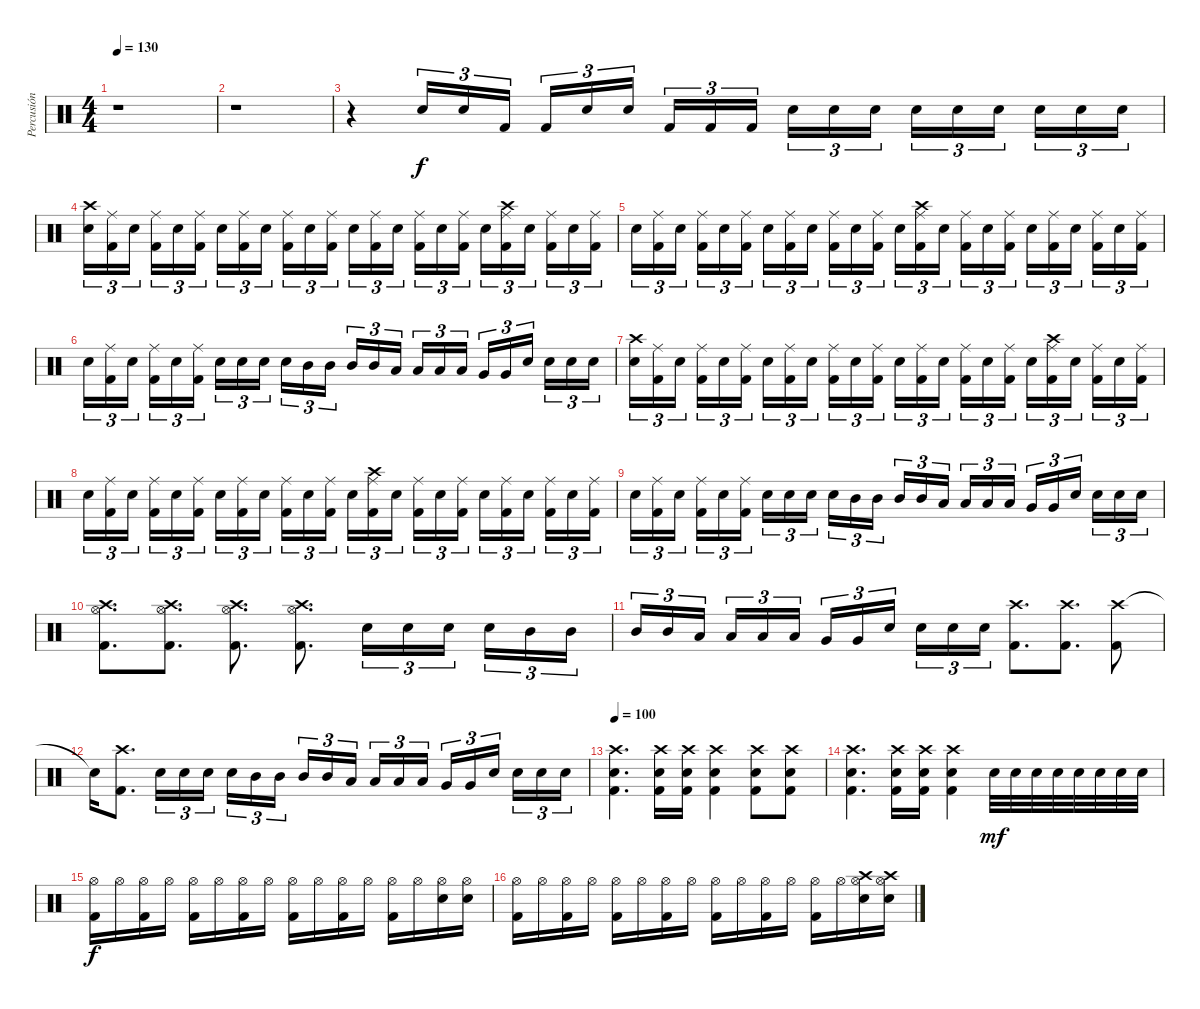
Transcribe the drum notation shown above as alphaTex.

\track ("Percusión" "Percusión") {instrument percussion}
\staff {score}
\articulation defaults
\ts (4 4)
\tempo 130
\clef neutral
\ks c
r.1{dy f} |
r.1 |
r.4 "Electric Snare (hit)".16{tu (3 2)} "Electric Snare (hit)".16{tu (3 2)} "Kick (hit) 2".16{tu (3 2)} "Kick (hit) 2".16{tu (3 2)} "Electric Snare (hit)".16{tu (3 2)} "Electric Snare (hit)".16{tu (3 2)} "Kick (hit) 2".16{tu (3 2)} "Kick (hit) 2".16{tu (3 2)} "Kick (hit) 2".16{tu (3 2)} "Electric Snare (hit)".16{tu (3 2)} "Electric Snare (hit)".16{tu (3 2)} "Electric Snare (hit)".16{tu (3 2)} "Electric Snare (hit)".16{tu (3 2)} "Electric Snare (hit)".16{tu (3 2)} "Electric Snare (hit)".16{tu (3 2)} "Electric Snare (hit)".16{tu (3 2)} "Electric Snare (hit)".16{tu (3 2)} "Electric Snare (hit)".16{tu (3 2)} |
("Crash high (hit)" "Electric Snare (hit)").16{tu (3 2)} ("Ride (middle)" "Kick (hit) 2").16{tu (3 2)} "Electric Snare (hit)".16{tu (3 2)} ("Ride (middle)" "Kick (hit) 2").16{tu (3 2)} "Electric Snare (hit)".16{tu (3 2)} ("Ride (middle)" "Kick (hit) 2").16{tu (3 2)} "Electric Snare (hit)".16{tu (3 2)} ("Ride (middle)" "Kick (hit) 2").16{tu (3 2)} "Electric Snare (hit)".16{tu (3 2)} ("Ride (middle)" "Kick (hit) 2").16{tu (3 2)} "Electric Snare (hit)".16{tu (3 2)} ("Ride (middle)" "Kick (hit) 2").16{tu (3 2)} "Electric Snare (hit)".16{tu (3 2)} ("Ride (middle)" "Kick (hit) 2").16{tu (3 2)} "Electric Snare (hit)".16{tu (3 2)} ("Ride (middle)" "Kick (hit) 2").16{tu (3 2)} "Electric Snare (hit)".16{tu (3 2)} ("Ride (middle)" "Kick (hit) 2").16{tu (3 2)} "Electric Snare (hit)".16{tu (3 2)} ("Crash high (hit)" "Ride (middle)" "Kick (hit) 2").16{tu (3 2)} "Electric Snare (hit)".16{tu (3 2)} ("Ride (middle)" "Kick (hit) 2").16{tu (3 2)} "Electric Snare (hit)".16{tu (3 2)} ("Ride (middle)" "Kick (hit) 2").16{tu (3 2)} |
"Electric Snare (hit)".16{tu (3 2)} ("Ride (middle)" "Kick (hit) 2").16{tu (3 2)} "Electric Snare (hit)".16{tu (3 2)} ("Ride (middle)" "Kick (hit) 2").16{tu (3 2)} "Electric Snare (hit)".16{tu (3 2)} ("Ride (middle)" "Kick (hit) 2").16{tu (3 2)} "Electric Snare (hit)".16{tu (3 2)} ("Ride (middle)" "Kick (hit) 2").16{tu (3 2)} "Electric Snare (hit)".16{tu (3 2)} ("Ride (middle)" "Kick (hit) 2").16{tu (3 2)} "Electric Snare (hit)".16{tu (3 2)} ("Ride (middle)" "Kick (hit) 2").16{tu (3 2)} "Electric Snare (hit)".16{tu (3 2)} ("Crash high (hit)" "Ride (middle)" "Kick (hit) 2").16{tu (3 2)} "Electric Snare (hit)".16{tu (3 2)} ("Ride (middle)" "Kick (hit) 2").16{tu (3 2)} "Electric Snare (hit)".16{tu (3 2)} ("Ride (middle)" "Kick (hit) 2").16{tu (3 2)} "Electric Snare (hit)".16{tu (3 2)} ("Ride (middle)" "Kick (hit) 2").16{tu (3 2)} "Electric Snare (hit)".16{tu (3 2)} ("Ride (middle)" "Kick (hit) 2").16{tu (3 2)} "Electric Snare (hit)".16{tu (3 2)} ("Ride (middle)" "Kick (hit) 2").16{tu (3 2)} |
"Electric Snare (hit)".16{tu (3 2)} ("Ride (middle)" "Kick (hit) 2").16{tu (3 2)} "Electric Snare (hit)".16{tu (3 2)} ("Ride (middle)" "Kick (hit) 2").16{tu (3 2)} "Electric Snare (hit)".16{tu (3 2)} ("Ride (middle)" "Kick (hit) 2").16{tu (3 2)} "Electric Snare (hit)".16{tu (3 2)} "Electric Snare (hit)".16{tu (3 2)} "Electric Snare (hit)".16{tu (3 2)} "Electric Snare (hit)".16{tu (3 2)} "Mid Tom (hit)".16{tu (3 2)} "Mid Tom (hit)".16{tu (3 2)} "Mid Tom (hit)".16{tu (3 2)} "Mid Tom (hit)".16{tu (3 2)} "Low Tom (hit)".16{tu (3 2)} "Low Tom (hit)".16{tu (3 2)} "Low Tom (hit)".16{tu (3 2)} "Low Tom (hit)".16{tu (3 2)} "Very Low Tom (hit)".16{tu (3 2)} "Very Low Tom (hit)".16{tu (3 2)} "Electric Snare (hit)".16{tu (3 2)} "Electric Snare (hit)".16{tu (3 2)} "Electric Snare (hit)".16{tu (3 2)} "Electric Snare (hit)".16{tu (3 2)} |
("Crash high (hit)" "Electric Snare (hit)").16{tu (3 2)} ("Ride (middle)" "Kick (hit) 2").16{tu (3 2)} "Electric Snare (hit)".16{tu (3 2)} ("Ride (middle)" "Kick (hit) 2").16{tu (3 2)} "Electric Snare (hit)".16{tu (3 2)} ("Ride (middle)" "Kick (hit) 2").16{tu (3 2)} "Electric Snare (hit)".16{tu (3 2)} ("Ride (middle)" "Kick (hit) 2").16{tu (3 2)} "Electric Snare (hit)".16{tu (3 2)} ("Ride (middle)" "Kick (hit) 2").16{tu (3 2)} "Electric Snare (hit)".16{tu (3 2)} ("Ride (middle)" "Kick (hit) 2").16{tu (3 2)} "Electric Snare (hit)".16{tu (3 2)} ("Ride (middle)" "Kick (hit) 2").16{tu (3 2)} "Electric Snare (hit)".16{tu (3 2)} ("Ride (middle)" "Kick (hit) 2").16{tu (3 2)} "Electric Snare (hit)".16{tu (3 2)} ("Ride (middle)" "Kick (hit) 2").16{tu (3 2)} "Electric Snare (hit)".16{tu (3 2)} ("Crash high (hit)" "Ride (middle)" "Kick (hit) 2").16{tu (3 2)} "Electric Snare (hit)".16{tu (3 2)} ("Ride (middle)" "Kick (hit) 2").16{tu (3 2)} "Electric Snare (hit)".16{tu (3 2)} ("Ride (middle)" "Kick (hit) 2").16{tu (3 2)} |
"Electric Snare (hit)".16{tu (3 2)} ("Ride (middle)" "Kick (hit) 2").16{tu (3 2)} "Electric Snare (hit)".16{tu (3 2)} ("Ride (middle)" "Kick (hit) 2").16{tu (3 2)} "Electric Snare (hit)".16{tu (3 2)} ("Ride (middle)" "Kick (hit) 2").16{tu (3 2)} "Electric Snare (hit)".16{tu (3 2)} ("Ride (middle)" "Kick (hit) 2").16{tu (3 2)} "Electric Snare (hit)".16{tu (3 2)} ("Ride (middle)" "Kick (hit) 2").16{tu (3 2)} "Electric Snare (hit)".16{tu (3 2)} ("Ride (middle)" "Kick (hit) 2").16{tu (3 2)} "Electric Snare (hit)".16{tu (3 2)} ("Crash high (hit)" "Ride (middle)" "Kick (hit) 2").16{tu (3 2)} "Electric Snare (hit)".16{tu (3 2)} ("Ride (middle)" "Kick (hit) 2").16{tu (3 2)} "Electric Snare (hit)".16{tu (3 2)} ("Ride (middle)" "Kick (hit) 2").16{tu (3 2)} "Electric Snare (hit)".16{tu (3 2)} ("Ride (middle)" "Kick (hit) 2").16{tu (3 2)} "Electric Snare (hit)".16{tu (3 2)} ("Ride (middle)" "Kick (hit) 2").16{tu (3 2)} "Electric Snare (hit)".16{tu (3 2)} ("Ride (middle)" "Kick (hit) 2").16{tu (3 2)} |
"Electric Snare (hit)".16{tu (3 2)} ("Ride (middle)" "Kick (hit) 2").16{tu (3 2)} "Electric Snare (hit)".16{tu (3 2)} ("Ride (middle)" "Kick (hit) 2").16{tu (3 2)} "Electric Snare (hit)".16{tu (3 2)} ("Ride (middle)" "Kick (hit) 2").16{tu (3 2)} "Electric Snare (hit)".16{tu (3 2)} "Electric Snare (hit)".16{tu (3 2)} "Electric Snare (hit)".16{tu (3 2)} "Electric Snare (hit)".16{tu (3 2)} "Mid Tom (hit)".16{tu (3 2)} "Mid Tom (hit)".16{tu (3 2)} "Mid Tom (hit)".16{tu (3 2)} "Mid Tom (hit)".16{tu (3 2)} "Low Tom (hit)".16{tu (3 2)} "Low Tom (hit)".16{tu (3 2)} "Low Tom (hit)".16{tu (3 2)} "Low Tom (hit)".16{tu (3 2)} "Very Low Tom (hit)".16{tu (3 2)} "Very Low Tom (hit)".16{tu (3 2)} "Electric Snare (hit)".16{tu (3 2)} "Electric Snare (hit)".16{tu (3 2)} "Electric Snare (hit)".16{tu (3 2)} "Electric Snare (hit)".16{tu (3 2)} |
("Crash high (hit)" "Kick (hit) 2" "Hi-Hat (open)").8{d} ("Crash high (hit)" "Kick (hit) 2" "Hi-Hat (open)").8{d} ("Crash high (hit)" "Kick (hit) 2" "Hi-Hat (open)").8{d} ("Crash high (hit)" "Kick (hit) 2" "Hi-Hat (open)").8{d} "Electric Snare (hit)".16{tu (3 2)} "Electric Snare (hit)".16{tu (3 2)} "Electric Snare (hit)".16{tu (3 2)} "Electric Snare (hit)".16{tu (3 2)} "Mid Tom (hit)".16{tu (3 2)} "Mid Tom (hit)".16{tu (3 2)} |
"Mid Tom (hit)".16{tu (3 2)} "Mid Tom (hit)".16{tu (3 2)} "Low Tom (hit)".16{tu (3 2)} "Low Tom (hit)".16{tu (3 2)} "Low Tom (hit)".16{tu (3 2)} "Low Tom (hit)".16{tu (3 2)} "Very Low Tom (hit)".16{tu (3 2)} "Very Low Tom (hit)".16{tu (3 2)} "Electric Snare (hit)".16{tu (3 2)} "Electric Snare (hit)".16{tu (3 2)} "Electric Snare (hit)".16{tu (3 2)} "Electric Snare (hit)".16{tu (3 2)} ("Crash high (hit)" "Kick (hit) 2").8{d} ("Crash high (hit)" "Kick (hit) 2").8{d} ("Crash high (hit)" "Kick (hit) 2").8 |
"Snare (hit)"{t}.16 ("Crash high (hit)" "Kick (hit) 2").8{d} "Electric Snare (hit)".16{tu (3 2)} "Electric Snare (hit)".16{tu (3 2)} "Electric Snare (hit)".16{tu (3 2)} "Electric Snare (hit)".16{tu (3 2)} "Mid Tom (hit)".16{tu (3 2)} "Mid Tom (hit)".16{tu (3 2)} "Mid Tom (hit)".16{tu (3 2)} "Mid Tom (hit)".16{tu (3 2)} "Low Tom (hit)".16{tu (3 2)} "Low Tom (hit)".16{tu (3 2)} "Low Tom (hit)".16{tu (3 2)} "Low Tom (hit)".16{tu (3 2)} "Very Low Tom (hit)".16{tu (3 2)} "Very Low Tom (hit)".16{tu (3 2)} "Electric Snare (hit)".16{tu (3 2)} "Electric Snare (hit)".16{tu (3 2)} "Electric Snare (hit)".16{tu (3 2)} "Electric Snare (hit)".16{tu (3 2)} |
\tempo 100
("Crash high (hit)" "Electric Snare (hit)" "Kick (hit) 2").4{d} ("Crash high (hit)" "Electric Snare (hit)" "Kick (hit) 2").16 ("Crash high (hit)" "Electric Snare (hit)" "Kick (hit) 2").16 ("Crash high (hit)" "Electric Snare (hit)" "Kick (hit) 2").4 ("Crash high (hit)" "Electric Snare (hit)" "Kick (hit) 2").8 ("Crash high (hit)" "Electric Snare (hit)" "Kick (hit) 2").8 |
("Crash high (hit)" "Electric Snare (hit)" "Kick (hit) 2").4{d} ("Crash high (hit)" "Electric Snare (hit)" "Kick (hit) 2").16 ("Crash high (hit)" "Electric Snare (hit)" "Kick (hit) 2").16 ("Crash high (hit)" "Electric Snare (hit)" "Kick (hit) 2").4 "Electric Snare (hit)".32{dy mf} "Electric Snare (hit)".32 "Electric Snare (hit)".32 "Electric Snare (hit)".32 "Electric Snare (hit)".32 "Electric Snare (hit)".32 "Electric Snare (hit)".32 "Electric Snare (hit)".32 |
("Hi-Hat (open)" "Kick (hit) 2").16{dy f} "Hi-Hat (open)".16 ("Hi-Hat (open)" "Kick (hit) 2").16 "Hi-Hat (open)".16 ("Hi-Hat (open)" "Kick (hit) 2").16 "Hi-Hat (open)".16 ("Hi-Hat (open)" "Kick (hit) 2").16 "Hi-Hat (open)".16 ("Hi-Hat (open)" "Kick (hit) 2").16 "Hi-Hat (open)".16 ("Hi-Hat (open)" "Kick (hit) 2").16 "Hi-Hat (open)".16 ("Hi-Hat (open)" "Kick (hit) 2").16 "Hi-Hat (open)".16 ("Hi-Hat (open)" "Electric Snare (hit)").16 ("Hi-Hat (open)" "Electric Snare (hit)").16 |
("Hi-Hat (open)" "Kick (hit) 2").16 "Hi-Hat (open)".16 ("Hi-Hat (open)" "Kick (hit) 2").16 "Hi-Hat (open)".16 ("Hi-Hat (open)" "Kick (hit) 2").16 "Hi-Hat (open)".16 ("Hi-Hat (open)" "Kick (hit) 2").16 "Hi-Hat (open)".16 ("Hi-Hat (open)" "Kick (hit) 2").16 "Hi-Hat (open)".16 ("Hi-Hat (open)" "Kick (hit) 2").16 "Hi-Hat (open)".16 ("Hi-Hat (open)" "Kick (hit) 2").16 "Hi-Hat (open)".16 ("Hi-Hat (open)" "Electric Snare (hit)" "Crash high (hit)").16 ("Hi-Hat (open)" "Electric Snare (hit)" "Crash high (hit)").16
